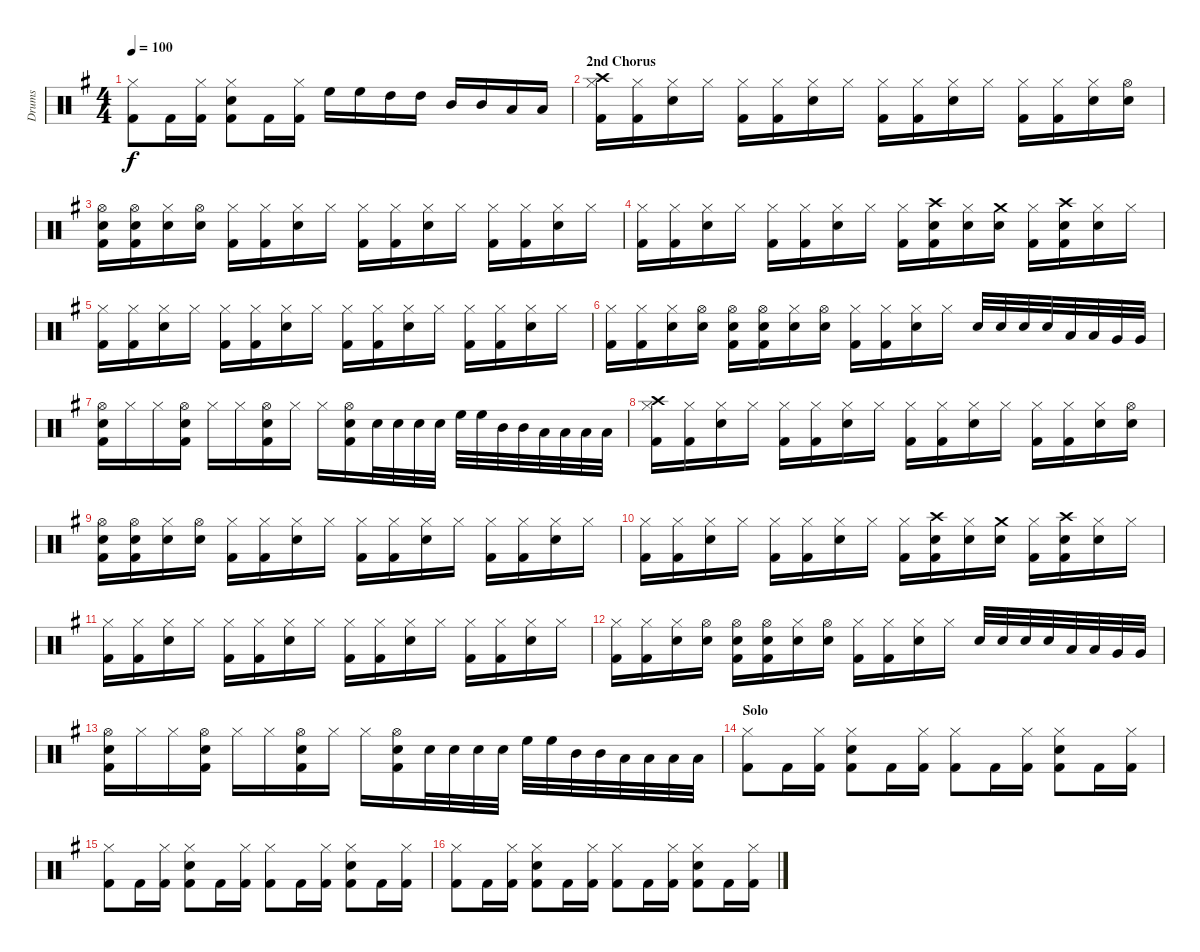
\track ("Drums" "Drums") {instrument percussion}
\staff {score}
\articulation defaults
\ts (4 4)
\tempo 100
\clef neutral
\ks eminor
("Hi-Hat (closed)" "Kick (hit) 2").8{dy f} "Kick (hit) 2".16 ("Hi-Hat (closed)" "Kick (hit) 2").16 ("Hi-Hat (closed)" "Kick (hit) 2" "Snare (hit) 2").8 "Kick (hit) 2".16 ("Hi-Hat (closed)" "Kick (hit) 2").16 "High Floor Tom (hit)".16 "High Floor Tom (hit)".16 "High Tom (hit)".16 "High Tom (hit)".16 "Mid Tom (hit)".16 "Mid Tom (hit)".16 "Low Tom (hit)".16 "Low Tom (hit)".16 |
\section ("" "2nd Chorus")
("Hi-Hat (closed)" "Crash high (hit)" "Kick (hit) 2").16 ("Hi-Hat (closed)" "Kick (hit) 2").16 ("Hi-Hat (closed)" "Snare (hit) 2").16 "Hi-Hat (closed)".16 ("Hi-Hat (closed)" "Kick (hit) 2").16 ("Hi-Hat (closed)" "Kick (hit) 2").16 ("Hi-Hat (closed)" "Snare (hit) 2").16 "Hi-Hat (closed)".16 ("Hi-Hat (closed)" "Kick (hit) 2").16 ("Hi-Hat (closed)" "Kick (hit) 2").16 ("Hi-Hat (closed)" "Snare (hit) 2").16 "Hi-Hat (closed)".16 ("Hi-Hat (closed)" "Kick (hit) 2").16 ("Hi-Hat (closed)" "Kick (hit) 2").16 ("Hi-Hat (closed)" "Snare (hit) 2").16 ("Hi-Hat (open)" "Snare (hit) 2").16 |
("Hi-Hat (open)" "Snare (hit) 2" "Kick (hit) 2").16 ("Hi-Hat (open)" "Snare (hit) 2" "Kick (hit) 2").16 ("Hi-Hat (closed)" "Snare (hit) 2").16 ("Hi-Hat (open)" "Snare (hit) 2").16 ("Hi-Hat (closed)" "Kick (hit) 2").16 ("Hi-Hat (closed)" "Kick (hit) 2").16 ("Hi-Hat (closed)" "Snare (hit) 2").16 "Hi-Hat (closed)".16 ("Hi-Hat (closed)" "Kick (hit) 2").16 ("Hi-Hat (closed)" "Kick (hit) 2").16 ("Hi-Hat (closed)" "Snare (hit) 2").16 "Hi-Hat (closed)".16 ("Hi-Hat (closed)" "Kick (hit) 2").16 ("Hi-Hat (closed)" "Kick (hit) 2").16 ("Hi-Hat (closed)" "Snare (hit) 2").16 "Hi-Hat (closed)".16 |
("Hi-Hat (closed)" "Kick (hit) 2").16 ("Hi-Hat (closed)" "Kick (hit) 2").16 ("Hi-Hat (closed)" "Snare (hit) 2").16 "Hi-Hat (closed)".16 ("Hi-Hat (closed)" "Kick (hit) 2").16 ("Hi-Hat (closed)" "Kick (hit) 2").16 ("Hi-Hat (closed)" "Snare (hit) 2").16 "Hi-Hat (closed)".16 ("Hi-Hat (closed)" "Kick (hit) 2").16 ("Crash high (hit)" "Snare (hit) 2" "Kick (hit) 2").16 ("Hi-Hat (closed)" "Snare (hit) 2").16 ("Crash medium (hit)" "Snare (hit) 2").16 ("Hi-Hat (closed)" "Kick (hit) 2").16 ("Crash high (hit)" "Snare (hit) 2" "Kick (hit) 2").16 ("Hi-Hat (closed)" "Snare (hit) 2").16 "Hi-Hat (closed)".16 |
("Hi-Hat (closed)" "Kick (hit) 2").16 ("Hi-Hat (closed)" "Kick (hit) 2").16 ("Hi-Hat (closed)" "Snare (hit) 2").16 "Hi-Hat (closed)".16 ("Hi-Hat (closed)" "Kick (hit) 2").16 ("Hi-Hat (closed)" "Kick (hit) 2").16 ("Hi-Hat (closed)" "Snare (hit) 2").16 "Hi-Hat (closed)".16 ("Hi-Hat (closed)" "Kick (hit) 2").16 ("Hi-Hat (closed)" "Kick (hit) 2").16 ("Hi-Hat (closed)" "Snare (hit) 2").16 "Hi-Hat (closed)".16 ("Hi-Hat (closed)" "Kick (hit) 2").16 ("Hi-Hat (closed)" "Kick (hit) 2").16 ("Hi-Hat (closed)" "Snare (hit) 2").16 "Hi-Hat (closed)".16 |
("Hi-Hat (closed)" "Kick (hit) 2").16 ("Hi-Hat (closed)" "Kick (hit) 2").16 ("Hi-Hat (closed)" "Snare (hit) 2").16 ("Hi-Hat (open)" "Snare (hit) 2").16 ("Hi-Hat (open)" "Snare (hit) 2" "Kick (hit) 2").16 ("Hi-Hat (open)" "Snare (hit) 2" "Kick (hit) 2").16 ("Hi-Hat (closed)" "Snare (hit) 2").16 ("Hi-Hat (open)" "Snare (hit) 2").16 ("Hi-Hat (closed)" "Kick (hit) 2").16 ("Hi-Hat (closed)" "Kick (hit) 2").16 ("Hi-Hat (closed)" "Snare (hit) 2").16 "Hi-Hat (closed)".16 "Snare (hit) 2".32 "Snare (hit) 2".32 "Snare (hit) 2".32 "Snare (hit) 2".32 "Low Floor Tom (hit)".32 "Low Floor Tom (hit)".32 "Very Low Tom (hit)".32 "Very Low Tom (hit)".32 |
("Hi-Hat (open)" "Snare (hit) 2" "Kick (hit) 2").16 "Hi-Hat (closed)".16 "Hi-Hat (closed)".16 ("Hi-Hat (open)" "Snare (hit) 2" "Kick (hit) 2").16 "Hi-Hat (closed)".16 "Hi-Hat (closed)".16 ("Hi-Hat (open)" "Snare (hit) 2" "Kick (hit) 2").16 "Hi-Hat (closed)".16 "Hi-Hat (closed)".16 ("Hi-Hat (open)" "Snare (hit) 2" "Kick (hit) 2").16 "Snare (hit) 2".32 "Snare (hit) 2".32 "Snare (hit) 2".32 "Snare (hit) 2".32 "High Floor Tom (hit)".32 "High Floor Tom (hit)".32 "Mid Tom (hit)".32 "Mid Tom (hit)".32 "Low Tom (hit)".32 "Low Tom (hit)".32 "Low Floor Tom (hit)".32 "Low Floor Tom (hit)".32 |
("Hi-Hat (closed)" "Crash high (hit)" "Kick (hit) 2").16 ("Hi-Hat (closed)" "Kick (hit) 2").16 ("Hi-Hat (closed)" "Snare (hit) 2").16 "Hi-Hat (closed)".16 ("Hi-Hat (closed)" "Kick (hit) 2").16 ("Hi-Hat (closed)" "Kick (hit) 2").16 ("Hi-Hat (closed)" "Snare (hit) 2").16 "Hi-Hat (closed)".16 ("Hi-Hat (closed)" "Kick (hit) 2").16 ("Hi-Hat (closed)" "Kick (hit) 2").16 ("Hi-Hat (closed)" "Snare (hit) 2").16 "Hi-Hat (closed)".16 ("Hi-Hat (closed)" "Kick (hit) 2").16 ("Hi-Hat (closed)" "Kick (hit) 2").16 ("Hi-Hat (closed)" "Snare (hit) 2").16 ("Hi-Hat (open)" "Snare (hit) 2").16 |
("Hi-Hat (open)" "Snare (hit) 2" "Kick (hit) 2").16 ("Hi-Hat (open)" "Snare (hit) 2" "Kick (hit) 2").16 ("Hi-Hat (closed)" "Snare (hit) 2").16 ("Hi-Hat (open)" "Snare (hit) 2").16 ("Hi-Hat (closed)" "Kick (hit) 2").16 ("Hi-Hat (closed)" "Kick (hit) 2").16 ("Hi-Hat (closed)" "Snare (hit) 2").16 "Hi-Hat (closed)".16 ("Hi-Hat (closed)" "Kick (hit) 2").16 ("Hi-Hat (closed)" "Kick (hit) 2").16 ("Hi-Hat (closed)" "Snare (hit) 2").16 "Hi-Hat (closed)".16 ("Hi-Hat (closed)" "Kick (hit) 2").16 ("Hi-Hat (closed)" "Kick (hit) 2").16 ("Hi-Hat (closed)" "Snare (hit) 2").16 "Hi-Hat (closed)".16 |
("Hi-Hat (closed)" "Kick (hit) 2").16 ("Hi-Hat (closed)" "Kick (hit) 2").16 ("Hi-Hat (closed)" "Snare (hit) 2").16 "Hi-Hat (closed)".16 ("Hi-Hat (closed)" "Kick (hit) 2").16 ("Hi-Hat (closed)" "Kick (hit) 2").16 ("Hi-Hat (closed)" "Snare (hit) 2").16 "Hi-Hat (closed)".16 ("Hi-Hat (closed)" "Kick (hit) 2").16 ("Crash high (hit)" "Snare (hit) 2" "Kick (hit) 2").16 ("Hi-Hat (closed)" "Snare (hit) 2").16 ("Crash medium (hit)" "Snare (hit) 2").16 ("Hi-Hat (closed)" "Kick (hit) 2").16 ("Crash high (hit)" "Snare (hit) 2" "Kick (hit) 2").16 ("Hi-Hat (closed)" "Snare (hit) 2").16 "Hi-Hat (closed)".16 |
("Hi-Hat (closed)" "Kick (hit) 2").16 ("Hi-Hat (closed)" "Kick (hit) 2").16 ("Hi-Hat (closed)" "Snare (hit) 2").16 "Hi-Hat (closed)".16 ("Hi-Hat (closed)" "Kick (hit) 2").16 ("Hi-Hat (closed)" "Kick (hit) 2").16 ("Hi-Hat (closed)" "Snare (hit) 2").16 "Hi-Hat (closed)".16 ("Hi-Hat (closed)" "Kick (hit) 2").16 ("Hi-Hat (closed)" "Kick (hit) 2").16 ("Hi-Hat (closed)" "Snare (hit) 2").16 "Hi-Hat (closed)".16 ("Hi-Hat (closed)" "Kick (hit) 2").16 ("Hi-Hat (closed)" "Kick (hit) 2").16 ("Hi-Hat (closed)" "Snare (hit) 2").16 "Hi-Hat (closed)".16 |
("Hi-Hat (closed)" "Kick (hit) 2").16 ("Hi-Hat (closed)" "Kick (hit) 2").16 ("Hi-Hat (closed)" "Snare (hit) 2").16 ("Hi-Hat (open)" "Snare (hit) 2").16 ("Hi-Hat (open)" "Snare (hit) 2" "Kick (hit) 2").16 ("Hi-Hat (open)" "Snare (hit) 2" "Kick (hit) 2").16 ("Hi-Hat (closed)" "Snare (hit) 2").16 ("Hi-Hat (open)" "Snare (hit) 2").16 ("Hi-Hat (closed)" "Kick (hit) 2").16 ("Hi-Hat (closed)" "Kick (hit) 2").16 ("Hi-Hat (closed)" "Snare (hit) 2").16 "Hi-Hat (closed)".16 "Snare (hit) 2".32 "Snare (hit) 2".32 "Snare (hit) 2".32 "Snare (hit) 2".32 "Low Floor Tom (hit)".32 "Low Floor Tom (hit)".32 "Very Low Tom (hit)".32 "Very Low Tom (hit)".32 |
("Hi-Hat (open)" "Snare (hit) 2" "Kick (hit) 2").16 "Hi-Hat (closed)".16 "Hi-Hat (closed)".16 ("Hi-Hat (open)" "Snare (hit) 2" "Kick (hit) 2").16 "Hi-Hat (closed)".16 "Hi-Hat (closed)".16 ("Hi-Hat (open)" "Snare (hit) 2" "Kick (hit) 2").16 "Hi-Hat (closed)".16 "Hi-Hat (closed)".16 ("Hi-Hat (open)" "Snare (hit) 2" "Kick (hit) 2").16 "Snare (hit) 2".32 "Snare (hit) 2".32 "Snare (hit) 2".32 "Snare (hit) 2".32 "High Floor Tom (hit)".32 "High Floor Tom (hit)".32 "Mid Tom (hit)".32 "Mid Tom (hit)".32 "Low Tom (hit)".32 "Low Tom (hit)".32 "Low Floor Tom (hit)".32 "Low Floor Tom (hit)".32 |
\section ("" "Solo")
("Hi-Hat (closed)" "Kick (hit) 2").8 "Kick (hit) 2".16 ("Hi-Hat (closed)" "Kick (hit) 2").16 ("Hi-Hat (closed)" "Kick (hit) 2" "Snare (hit) 2").8 "Kick (hit) 2".16 ("Hi-Hat (closed)" "Kick (hit) 2").16 ("Hi-Hat (closed)" "Kick (hit) 2").8 "Kick (hit) 2".16 ("Hi-Hat (closed)" "Kick (hit) 2").16 ("Hi-Hat (closed)" "Kick (hit) 2" "Snare (hit) 2").8 "Kick (hit) 2".16 ("Hi-Hat (closed)" "Kick (hit) 2").16 |
("Hi-Hat (closed)" "Kick (hit) 2").8 "Kick (hit) 2".16 ("Hi-Hat (closed)" "Kick (hit) 2").16 ("Hi-Hat (closed)" "Kick (hit) 2" "Snare (hit) 2").8 "Kick (hit) 2".16 ("Hi-Hat (closed)" "Kick (hit) 2").16 ("Hi-Hat (closed)" "Kick (hit) 2").8 "Kick (hit) 2".16 ("Hi-Hat (closed)" "Kick (hit) 2").16 ("Hi-Hat (closed)" "Kick (hit) 2" "Snare (hit) 2").8 "Kick (hit) 2".16 ("Hi-Hat (closed)" "Kick (hit) 2").16 |
("Hi-Hat (closed)" "Kick (hit) 2").8 "Kick (hit) 2".16 ("Hi-Hat (closed)" "Kick (hit) 2").16 ("Hi-Hat (closed)" "Kick (hit) 2" "Snare (hit) 2").8 "Kick (hit) 2".16 ("Hi-Hat (closed)" "Kick (hit) 2").16 ("Hi-Hat (closed)" "Kick (hit) 2").8 "Kick (hit) 2".16 ("Hi-Hat (closed)" "Kick (hit) 2").16 ("Hi-Hat (closed)" "Kick (hit) 2" "Snare (hit) 2").8 "Kick (hit) 2".16 ("Hi-Hat (closed)" "Kick (hit) 2").16
